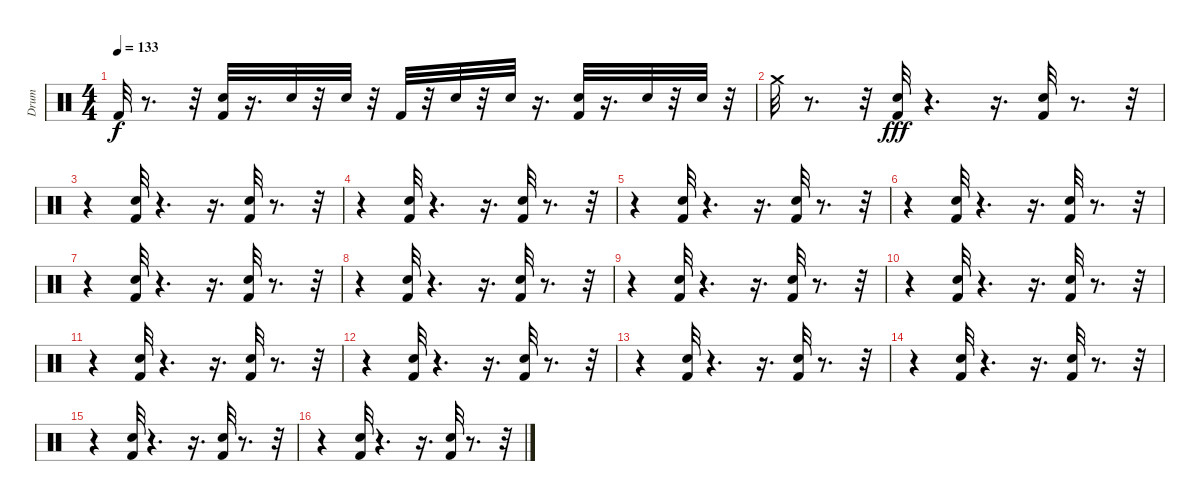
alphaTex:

\track ("Drum" "Drum") {instrument percussion}
\staff {score}
\articulation defaults
\ts (4 4)
\tempo 133
\clef neutral
\ks c "Kick (hit) 2".32{dy f}
r.8{d} r.32 ("Electric Snare (hit)" "Kick (hit) 2").32 r.16{d} "Electric Snare (hit)".32 r.32 "Electric Snare (hit)".32 r.32 "Kick (hit) 2".32 r.32 "Electric Snare (hit)".32 r.32 "Electric Snare (hit)".32 r.16{d} ("Electric Snare (hit)" "Kick (hit) 2").32 r.16{d} "Electric Snare (hit)".32 r.32 "Electric Snare (hit)".32 r.32 |
"Crash medium (hit)".32 r.8{d} r.32 ("Electric Snare (hit)" "Kick (hit) 2").32{dy fff} r.4{d} r.16{d} ("Electric Snare (hit)" "Kick (hit) 2").32 r.8{d} r.32 |
r.4 ("Electric Snare (hit)" "Kick (hit) 2").32 r.4{d} r.16{d} ("Electric Snare (hit)" "Kick (hit) 2").32 r.8{d} r.32 |
r.4 ("Electric Snare (hit)" "Kick (hit) 2").32 r.4{d} r.16{d} ("Electric Snare (hit)" "Kick (hit) 2").32 r.8{d} r.32 |
r.4 ("Electric Snare (hit)" "Kick (hit) 2").32 r.4{d} r.16{d} ("Electric Snare (hit)" "Kick (hit) 2").32 r.8{d} r.32 |
r.4 ("Electric Snare (hit)" "Kick (hit) 2").32 r.4{d} r.16{d} ("Electric Snare (hit)" "Kick (hit) 2").32 r.8{d} r.32 |
r.4 ("Electric Snare (hit)" "Kick (hit) 2").32 r.4{d} r.16{d} ("Electric Snare (hit)" "Kick (hit) 2").32 r.8{d} r.32 |
r.4 ("Electric Snare (hit)" "Kick (hit) 2").32 r.4{d} r.16{d} ("Electric Snare (hit)" "Kick (hit) 2").32 r.8{d} r.32 |
r.4 ("Electric Snare (hit)" "Kick (hit) 2").32 r.4{d} r.16{d} ("Electric Snare (hit)" "Kick (hit) 2").32 r.8{d} r.32 |
r.4 ("Electric Snare (hit)" "Kick (hit) 2").32 r.4{d} r.16{d} ("Electric Snare (hit)" "Kick (hit) 2").32 r.8{d} r.32 |
r.4 ("Electric Snare (hit)" "Kick (hit) 2").32 r.4{d} r.16{d} ("Electric Snare (hit)" "Kick (hit) 2").32 r.8{d} r.32 |
r.4 ("Electric Snare (hit)" "Kick (hit) 2").32 r.4{d} r.16{d} ("Electric Snare (hit)" "Kick (hit) 2").32 r.8{d} r.32 |
r.4 ("Electric Snare (hit)" "Kick (hit) 2").32 r.4{d} r.16{d} ("Electric Snare (hit)" "Kick (hit) 2").32 r.8{d} r.32 |
r.4 ("Electric Snare (hit)" "Kick (hit) 2").32 r.4{d} r.16{d} ("Electric Snare (hit)" "Kick (hit) 2").32 r.8{d} r.32 |
r.4 ("Electric Snare (hit)" "Kick (hit) 2").32 r.4{d} r.16{d} ("Electric Snare (hit)" "Kick (hit) 2").32 r.8{d} r.32 |
r.4 ("Electric Snare (hit)" "Kick (hit) 2").32 r.4{d} r.16{d} ("Electric Snare (hit)" "Kick (hit) 2").32 r.8{d} r.32
